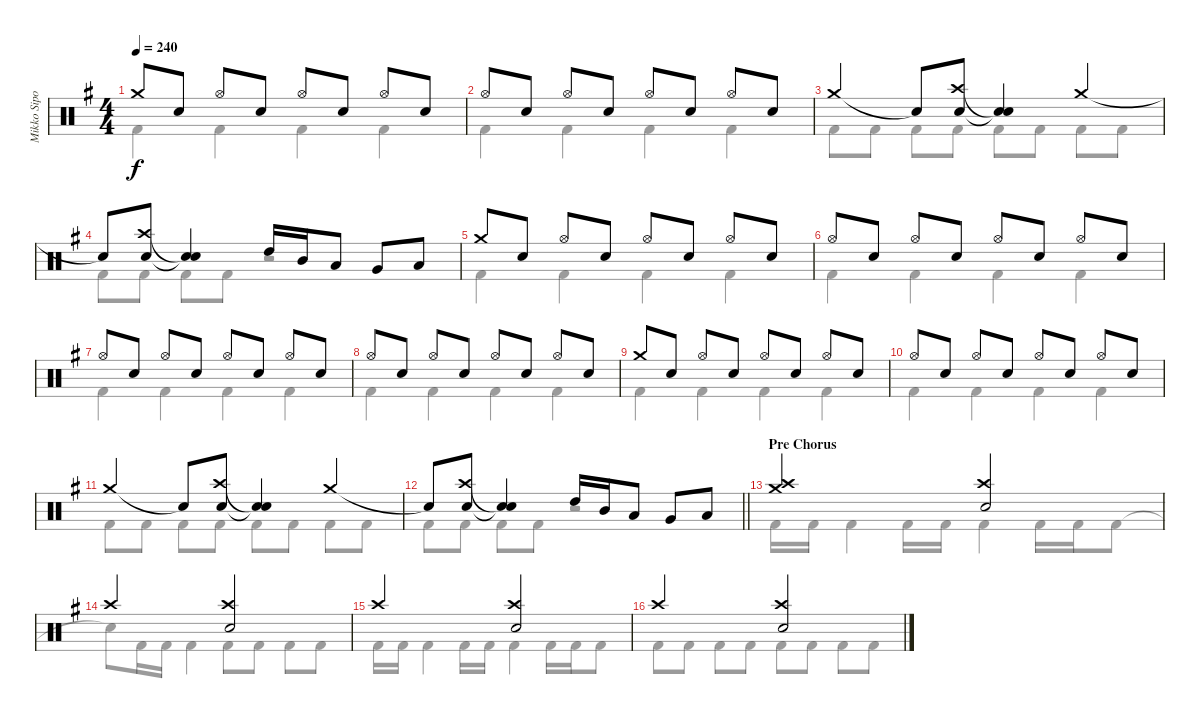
\track ("Mikko Sipola (drums)" "Mikko Sipo") {instrument percussion}
\staff {score}
\articulation defaults
\voice
\ts (4 4)
\tempo 240
\clef neutral
\ks eminor "Crash medium (hit)".8{dy f} "Electric Snare (hit)".8 "Hi-Hat (open)".8 "Electric Snare (hit)".8 "Hi-Hat (open)".8 "Electric Snare (hit)".8 "Hi-Hat (open)".8 "Electric Snare (hit)".8
|
"Hi-Hat (open)".8 "Electric Snare (hit)".8 "Hi-Hat (open)".8 "Electric Snare (hit)".8 "Hi-Hat (open)".8 "Electric Snare (hit)".8 "Hi-Hat (open)".8 "Electric Snare (hit)".8 |
"Crash medium (hit)".4 "Snare (hit)"{t}.8 ("Crash high (hit)" "Electric Snare (hit)").8 ("Snare (hit)"{t} "Snare (hit)"{t}).4 "Crash medium (hit)".4 |
"Snare (hit)"{t}.8 ("Crash high (hit)" "Electric Snare (hit)").8 ("Snare (hit)"{t} "Snare (hit)"{t}).4 "High Tom (hit)".16 "Mid Tom (hit)".16 "Low Tom (hit)".8 "Very Low Tom (hit)".8 "Low Floor Tom (hit)".8 |
"Crash medium (hit)".8 "Electric Snare (hit)".8 "Hi-Hat (open)".8 "Electric Snare (hit)".8 "Hi-Hat (open)".8 "Electric Snare (hit)".8 "Hi-Hat (open)".8 "Electric Snare (hit)".8 |
"Hi-Hat (open)".8 "Electric Snare (hit)".8 "Hi-Hat (open)".8 "Electric Snare (hit)".8 "Hi-Hat (open)".8 "Electric Snare (hit)".8 "Hi-Hat (open)".8 "Electric Snare (hit)".8 |
"Hi-Hat (open)".8 "Electric Snare (hit)".8 "Hi-Hat (open)".8 "Electric Snare (hit)".8 "Hi-Hat (open)".8 "Electric Snare (hit)".8 "Hi-Hat (open)".8 "Electric Snare (hit)".8 |
"Hi-Hat (open)".8 "Electric Snare (hit)".8 "Hi-Hat (open)".8 "Electric Snare (hit)".8 "Hi-Hat (open)".8 "Electric Snare (hit)".8 "Hi-Hat (open)".8 "Electric Snare (hit)".8 |
"Crash medium (hit)".8 "Electric Snare (hit)".8 "Hi-Hat (open)".8 "Electric Snare (hit)".8 "Hi-Hat (open)".8 "Electric Snare (hit)".8 "Hi-Hat (open)".8 "Electric Snare (hit)".8 |
"Hi-Hat (open)".8 "Electric Snare (hit)".8 "Hi-Hat (open)".8 "Electric Snare (hit)".8 "Hi-Hat (open)".8 "Electric Snare (hit)".8 "Hi-Hat (open)".8 "Electric Snare (hit)".8 |
"Crash medium (hit)".4 "Snare (hit)"{t}.8 ("Crash high (hit)" "Electric Snare (hit)").8 ("Snare (hit)"{t} "Snare (hit)"{t}).4 "Crash medium (hit)".4 |
\barLineRight lightlight "Snare (hit)"{t}.8
("Crash high (hit)" "Electric Snare (hit)").8 ("Snare (hit)"{t} "Snare (hit)"{t}).4 "High Tom (hit)".16 "Mid Tom (hit)".16 "Low Tom (hit)".8 "Very Low Tom (hit)".8 "Low Floor Tom (hit)".8 |
\section ("" "Pre Chorus")
("Crash medium (hit)" "Crash high (hit)").2 ("Crash high (hit)" "Electric Snare (hit)").2 |
"Crash high (hit)".2 ("Electric Snare (hit)" "Crash high (hit)").2 |
"Crash high (hit)".2 ("Electric Snare (hit)" "Crash high (hit)").2 |
"Crash high (hit)".2 ("Electric Snare (hit)" "Crash high (hit)").2
\voice
\clef neutral
\ottava regular
\simile none
\ks eminor "Kick (hit) 2".4{dy f} "Kick (hit) 2".4 "Kick (hit) 2".4 "Kick (hit) 2".4
|
"Kick (hit) 2".4 "Kick (hit) 2".4 "Kick (hit) 2".4 "Kick (hit) 2".4 |
"Kick (hit) 2".8 "Kick (hit) 2".8 "Kick (hit) 2".8 "Kick (hit) 2".8 "Kick (hit) 2".8 "Kick (hit) 2".8 "Kick (hit) 2".8 "Kick (hit) 2".8 |
"Kick (hit) 2".8 "Kick (hit) 2".8 "Kick (hit) 2".8 "Kick (hit) 2".8 r.2 |
"Kick (hit) 2".4 "Kick (hit) 2".4 "Kick (hit) 2".4 "Kick (hit) 2".4 |
"Kick (hit) 2".4 "Kick (hit) 2".4 "Kick (hit) 2".4 "Kick (hit) 2".4 |
"Kick (hit) 2".4 "Kick (hit) 2".4 "Kick (hit) 2".4 "Kick (hit) 2".4 |
"Kick (hit) 2".4 "Kick (hit) 2".4 "Kick (hit) 2".4 "Kick (hit) 2".4 |
"Kick (hit) 2".4 "Kick (hit) 2".4 "Kick (hit) 2".4 "Kick (hit) 2".4 |
"Kick (hit) 2".4 "Kick (hit) 2".4 "Kick (hit) 2".4 "Kick (hit) 2".4 |
"Kick (hit) 2".8 "Kick (hit) 2".8 "Kick (hit) 2".8 "Kick (hit) 2".8 "Kick (hit) 2".8 "Kick (hit) 2".8 "Kick (hit) 2".8 "Kick (hit) 2".8 |
\barLineRight lightlight "Kick (hit) 2".8 "Kick (hit) 2".8 "Kick (hit) 2".8 "Kick (hit) 2".8
r.2 |
"Kick (hit) 2".16 "Kick (hit) 2".16 "Kick (hit) 2".4 "Kick (hit) 2".16 "Kick (hit) 2".16 "Kick (hit) 2".4 "Kick (hit) 2".16 "Kick (hit) 2".16 "Kick (hit) 2".8 |
"Snare (hit)"{t}.8 "Kick (hit) 2".16 "Kick (hit) 2".16 "Kick (hit) 2".4 "Kick (hit) 2".8 "Kick (hit) 2".8 "Kick (hit) 2".8 "Kick (hit) 2".8 |
"Kick (hit) 2".16 "Kick (hit) 2".16 "Kick (hit) 2".4 "Kick (hit) 2".16 "Kick (hit) 2".16 "Kick (hit) 2".4 "Kick (hit) 2".16 "Kick (hit) 2".16 "Kick (hit) 2".8 |
"Kick (hit) 2".8 "Kick (hit) 2".8 "Kick (hit) 2".8 "Kick (hit) 2".8 "Kick (hit) 2".8 "Kick (hit) 2".8 "Kick (hit) 2".8 "Kick (hit) 2".8
